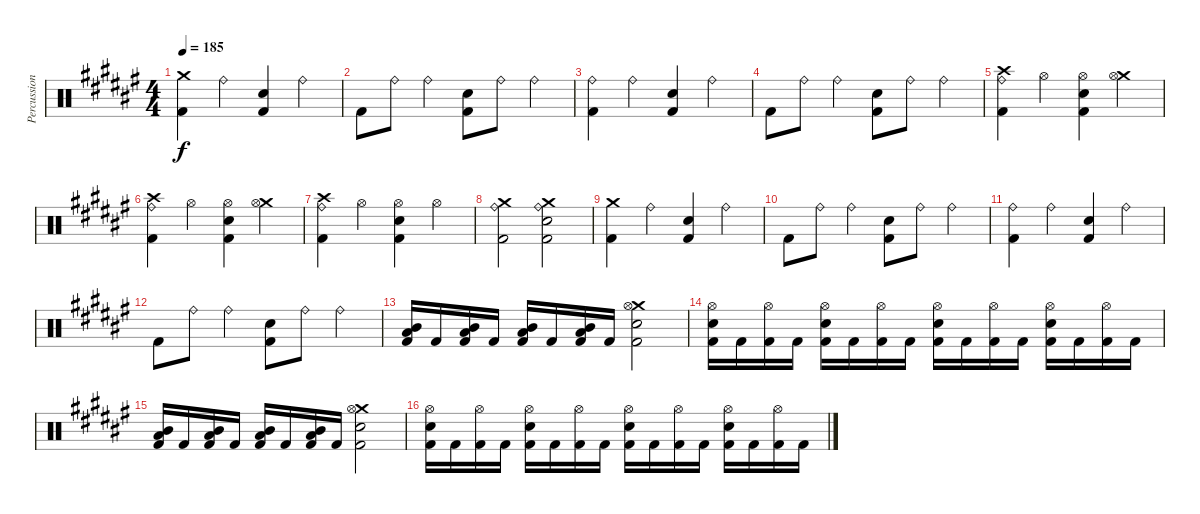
\track ("Percussion" "Percussion") {instrument percussion}
\staff {score}
\articulation defaults
\ts (4 4)
\tempo 185
\clef neutral
\ks d#minor
("Crash medium (hit)" "Kick (hit) 2").4{dy f} "Ride (bell)".4 ("Electric Snare (hit)" "Kick (hit) 2").4 "Ride (bell)".4 |
"Kick (hit) 2".8 "Ride (bell)".8 "Ride (bell)".4 ("Electric Snare (hit)" "Kick (hit) 2").8 "Ride (bell)".8 "Ride (bell)".4 |
("Ride (bell)" "Kick (hit) 2").4 "Ride (bell)".4 ("Electric Snare (hit)" "Kick (hit) 2").4 "Ride (bell)".4 |
"Kick (hit) 2".8 "Ride (bell)".8 "Ride (bell)".4 ("Electric Snare (hit)" "Kick (hit) 2").8 "Ride (bell)".8 "Ride (bell)".4 |
("Crash high (hit)" "Ride (bell)" "Kick (hit) 2").4 "Hi-Hat (open)".4 ("Hi-Hat (open)" "Electric Snare (hit)" "Kick (hit) 2").4 ("Crash medium (hit)" "Hi-Hat (open)").4 |
("Crash high (hit)" "Ride (bell)" "Kick (hit) 2").4 "Hi-Hat (open)".4 ("Hi-Hat (open)" "Electric Snare (hit)" "Kick (hit) 2").4 ("Crash medium (hit)" "Hi-Hat (open)").4 |
("Crash high (hit)" "Ride (bell)" "Kick (hit) 2").4 "Hi-Hat (open)".4 ("Hi-Hat (open)" "Electric Snare (hit)" "Kick (hit) 2").4 "Hi-Hat (open)".4 |
("Crash medium (hit)" "Ride (bell)" "Kick (hit) 2").2 ("Crash medium (hit)" "Ride (bell)" "Electric Snare (hit)" "Kick (hit) 2").2 |
("Crash medium (hit)" "Kick (hit) 2").4 "Ride (bell)".4 ("Electric Snare (hit)" "Kick (hit) 2").4 "Ride (bell)".4 |
"Kick (hit) 2".8 "Ride (bell)".8 "Ride (bell)".4 ("Electric Snare (hit)" "Kick (hit) 2").8 "Ride (bell)".8 "Ride (bell)".4 |
("Ride (bell)" "Kick (hit) 2").4 "Ride (bell)".4 ("Electric Snare (hit)" "Kick (hit) 2").4 "Ride (bell)".4 |
"Kick (hit) 2".8 "Ride (bell)".8 "Ride (bell)".4 ("Electric Snare (hit)" "Kick (hit) 2").8 "Ride (bell)".8 "Ride (bell)".4 |
("Mid Tom (hit)" "Low Tom (hit)" "Kick (hit) 2").16 "Kick (hit) 2".16 ("Mid Tom (hit)" "Low Tom (hit)" "Kick (hit) 2").16 "Kick (hit) 2".16 ("Mid Tom (hit)" "Low Tom (hit)" "Kick (hit) 2").16 "Kick (hit) 2".16 ("Mid Tom (hit)" "Low Tom (hit)" "Kick (hit) 2").16 "Kick (hit) 2".16 ("Crash medium (hit)" "Hi-Hat (open)" "Electric Snare (hit)" "Kick (hit) 2").2 |
("Hi-Hat (open)" "Electric Snare (hit)" "Kick (hit) 2").16 "Kick (hit) 2".16 ("Hi-Hat (open)" "Kick (hit) 2").16 "Kick (hit) 2".16 ("Hi-Hat (open)" "Electric Snare (hit)" "Kick (hit) 2").16 "Kick (hit) 2".16 ("Hi-Hat (open)" "Kick (hit) 2").16 "Kick (hit) 2".16 ("Hi-Hat (open)" "Electric Snare (hit)" "Kick (hit) 2").16 "Kick (hit) 2".16 ("Hi-Hat (open)" "Kick (hit) 2").16 "Kick (hit) 2".16 ("Hi-Hat (open)" "Electric Snare (hit)" "Kick (hit) 2").16 "Kick (hit) 2".16 ("Hi-Hat (open)" "Kick (hit) 2").16 "Kick (hit) 2".16 |
("Mid Tom (hit)" "Low Tom (hit)" "Kick (hit) 2").16 "Kick (hit) 2".16 ("Mid Tom (hit)" "Low Tom (hit)" "Kick (hit) 2").16 "Kick (hit) 2".16 ("Mid Tom (hit)" "Low Tom (hit)" "Kick (hit) 2").16 "Kick (hit) 2".16 ("Mid Tom (hit)" "Low Tom (hit)" "Kick (hit) 2").16 "Kick (hit) 2".16 ("Crash medium (hit)" "Hi-Hat (open)" "Electric Snare (hit)" "Kick (hit) 2").2 |
("Hi-Hat (open)" "Electric Snare (hit)" "Kick (hit) 2").16 "Kick (hit) 2".16 ("Hi-Hat (open)" "Kick (hit) 2").16 "Kick (hit) 2".16 ("Hi-Hat (open)" "Electric Snare (hit)" "Kick (hit) 2").16 "Kick (hit) 2".16 ("Hi-Hat (open)" "Kick (hit) 2").16 "Kick (hit) 2".16 ("Hi-Hat (open)" "Electric Snare (hit)" "Kick (hit) 2").16 "Kick (hit) 2".16 ("Hi-Hat (open)" "Kick (hit) 2").16 "Kick (hit) 2".16 ("Hi-Hat (open)" "Electric Snare (hit)" "Kick (hit) 2").16 "Kick (hit) 2".16 ("Hi-Hat (open)" "Kick (hit) 2").16 "Kick (hit) 2".16
